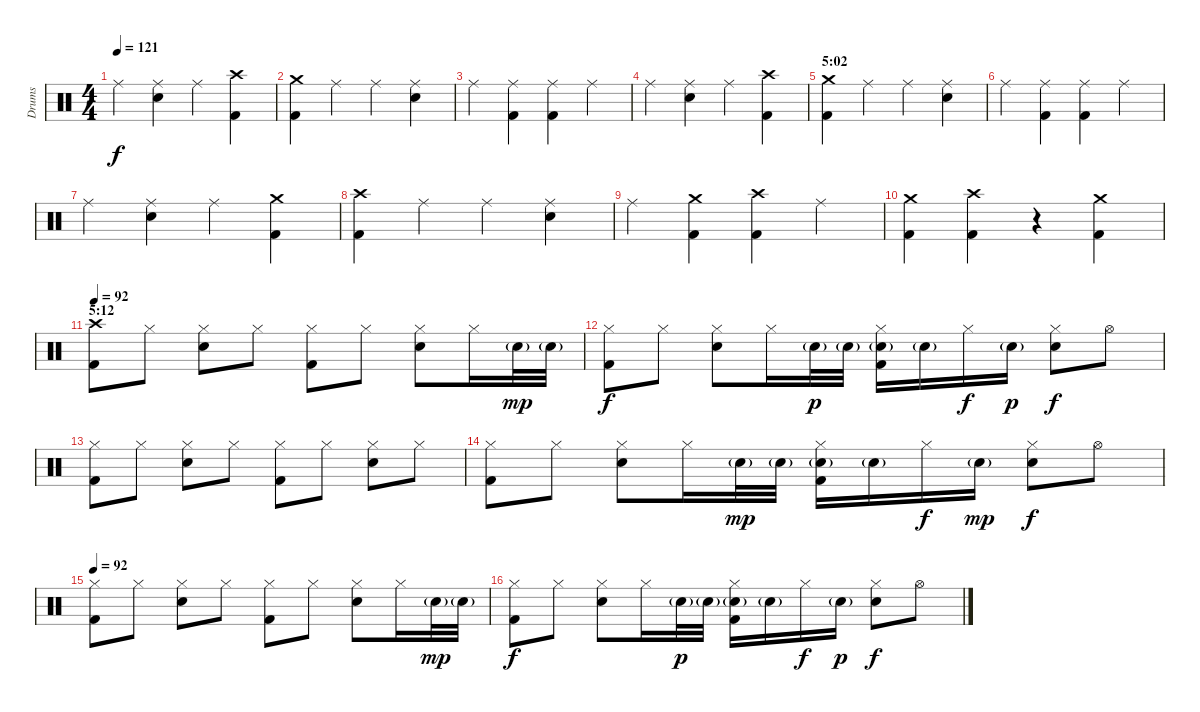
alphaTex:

\track ("Drums" "Drums") {instrument percussion}
\staff {score}
\articulation defaults
\ts (4 4)
\tempo 121
\clef neutral
\ks c "Ride (middle)".4{dy f}
("Ride (middle)" "Snare (hit) 2").4 "Ride (middle)".4 ("Crash high (hit)" "Kick (hit) 2").4 |
("Crash medium (hit)" "Kick (hit) 2").4 "Ride (middle)".4 "Ride (middle)".4 ("Ride (middle)" "Snare (hit) 2").4 |
"Ride (middle)".4 ("Ride (middle)" "Kick (hit) 2").4 ("Ride (middle)" "Kick (hit) 2").4 "Ride (middle)".4 |
"Ride (middle)".4 ("Ride (middle)" "Snare (hit) 2").4 "Ride (middle)".4 ("Crash high (hit)" "Kick (hit) 2").4 |
\section ("" "5:02")
("Crash medium (hit)" "Kick (hit) 2").4 "Ride (middle)".4 "Ride (middle)".4 ("Ride (middle)" "Snare (hit) 2").4 |
"Ride (middle)".4 ("Ride (middle)" "Kick (hit) 2").4 ("Ride (middle)" "Kick (hit) 2").4 "Ride (middle)".4 |
"Ride (middle)".4 ("Ride (middle)" "Snare (hit) 2").4 "Ride (middle)".4 ("Crash medium (hit)" "Kick (hit) 2").4 |
("Crash high (hit)" "Kick (hit) 2").4 "Ride (middle)".4 "Ride (middle)".4 ("Ride (middle)" "Snare (hit) 2").4 |
"Ride (middle)".4 ("Crash medium (hit)" "Kick (hit) 2").4 ("Crash high (hit)" "Kick (hit) 2").4 "Ride (middle)".4 |
("Crash medium (hit)" "Kick (hit) 2").4 ("Crash high (hit)" "Kick (hit) 2").4 r.4 ("Crash medium (hit)" "Kick (hit) 2").4 |
\section ("" "5:12")
\tempo 92
("Crash high (hit)" "Kick (hit) 2").8 "Hi-Hat (closed)".8 ("Hi-Hat (closed)" "Snare (hit) 2").8 "Hi-Hat (closed)".8 ("Hi-Hat (closed)" "Kick (hit) 2").8 "Hi-Hat (closed)".8 ("Hi-Hat (closed)" "Snare (hit) 2").8 "Hi-Hat (closed)".16 "Snare (hit) 2"{g}.32{dy mp} "Snare (hit) 2"{g}.32 |
("Hi-Hat (closed)" "Kick (hit) 2").8{dy f} "Hi-Hat (closed)".8 ("Hi-Hat (closed)" "Snare (hit) 2").8 "Hi-Hat (closed)".16 "Snare (hit) 2"{g}.32{dy p} "Snare (hit) 2"{g}.32 ("Hi-Hat (closed)" "Snare (hit) 2"{g} "Kick (hit) 2").16 "Snare (hit) 2"{g}.16 "Hi-Hat (closed)".16{dy f} "Snare (hit) 2"{g}.16{dy p} ("Hi-Hat (closed)" "Snare (hit) 2").8{dy f} "Hi-Hat (open)".8 |
("Hi-Hat (closed)" "Kick (hit) 2").8 "Hi-Hat (closed)".8 ("Hi-Hat (closed)" "Snare (hit) 2").8 "Hi-Hat (closed)".8 ("Hi-Hat (closed)" "Kick (hit) 2").8 "Hi-Hat (closed)".8 ("Hi-Hat (closed)" "Snare (hit) 2").8 "Hi-Hat (closed)".8 |
("Hi-Hat (closed)" "Kick (hit) 2").8 "Hi-Hat (closed)".8 ("Hi-Hat (closed)" "Snare (hit) 2").8 "Hi-Hat (closed)".16 "Snare (hit) 2"{g}.32{dy mp} "Snare (hit) 2"{g}.32 ("Hi-Hat (closed)" "Snare (hit) 2"{g} "Kick (hit) 2").16 "Snare (hit) 2"{g}.16 "Hi-Hat (closed)".16{dy f} "Snare (hit) 2"{g}.16{dy mp} ("Hi-Hat (closed)" "Snare (hit) 2").8{dy f} "Hi-Hat (open)".8 |
\tempo 92
("Hi-Hat (closed)" "Kick (hit) 2").8 "Hi-Hat (closed)".8 ("Hi-Hat (closed)" "Snare (hit) 2").8 "Hi-Hat (closed)".8 ("Hi-Hat (closed)" "Kick (hit) 2").8 "Hi-Hat (closed)".8 ("Hi-Hat (closed)" "Snare (hit) 2").8 "Hi-Hat (closed)".16 "Snare (hit) 2"{g}.32{dy mp} "Snare (hit) 2"{g}.32 |
("Hi-Hat (closed)" "Kick (hit) 2").8{dy f} "Hi-Hat (closed)".8 ("Hi-Hat (closed)" "Snare (hit) 2").8 "Hi-Hat (closed)".16 "Snare (hit) 2"{g}.32{dy p} "Snare (hit) 2"{g}.32 ("Hi-Hat (closed)" "Snare (hit) 2"{g} "Kick (hit) 2").16 "Snare (hit) 2"{g}.16 "Hi-Hat (closed)".16{dy f} "Snare (hit) 2"{g}.16{dy p} ("Hi-Hat (closed)" "Snare (hit) 2").8{dy f} "Hi-Hat (open)".8
